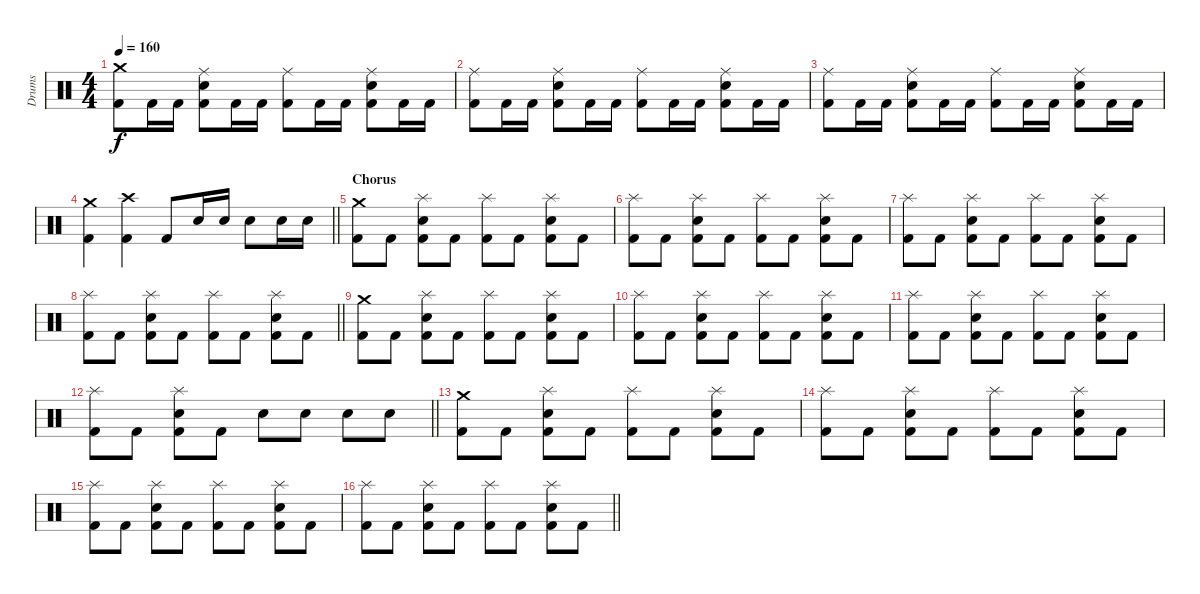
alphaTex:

\track ("Drums" "Drums") {instrument percussion}
\staff {score}
\articulation defaults
\ts (4 4)
\section ("" "")
\tempo 160
\clef neutral
\ks c
("Kick (hit) 2" "Crash medium (hit)").8{dy f} "Kick (hit) 2".16 "Kick (hit) 2".16 ("Kick (hit) 2" "Snare (hit) 2" "Ride (middle)").8 "Kick (hit) 2".16 "Kick (hit) 2".16 ("Kick (hit) 2" "Ride (middle)").8 "Kick (hit) 2".16 "Kick (hit) 2".16 ("Kick (hit) 2" "Snare (hit) 2" "Ride (middle)").8 "Kick (hit) 2".16 "Kick (hit) 2".16 |
("Kick (hit) 2" "Ride (middle)").8 "Kick (hit) 2".16 "Kick (hit) 2".16 ("Kick (hit) 2" "Snare (hit) 2" "Ride (middle)").8 "Kick (hit) 2".16 "Kick (hit) 2".16 ("Kick (hit) 2" "Ride (middle)").8 "Kick (hit) 2".16 "Kick (hit) 2".16 ("Kick (hit) 2" "Snare (hit) 2" "Ride (middle)").8 "Kick (hit) 2".16 "Kick (hit) 2".16 |
("Kick (hit) 2" "Ride (middle)").8 "Kick (hit) 2".16 "Kick (hit) 2".16 ("Kick (hit) 2" "Snare (hit) 2" "Ride (middle)").8 "Kick (hit) 2".16 "Kick (hit) 2".16 ("Kick (hit) 2" "Ride (middle)").8 "Kick (hit) 2".16 "Kick (hit) 2".16 ("Kick (hit) 2" "Snare (hit) 2" "Ride (middle)").8 "Kick (hit) 2".16 "Kick (hit) 2".16 |
\barLineRight lightlight
("Kick (hit) 2" "Crash medium (hit)").4 ("Kick (hit) 2" "Crash high (hit)").4 "Kick (hit) 2".8 "Snare (hit) 2".16 "Snare (hit) 2".16 "Snare (hit) 2".8 "Snare (hit) 2".16 "Snare (hit) 2".16 |
\section ("" "Chorus")
("Kick (hit) 2" "Crash medium (hit)").8 "Kick (hit) 2".8 ("Kick (hit) 2" "Snare (hit) 2" "Splash (hit)").8 "Kick (hit) 2".8 ("Kick (hit) 2" "Splash (hit)").8 "Kick (hit) 2".8 ("Kick (hit) 2" "Snare (hit) 2" "Splash (hit)").8 "Kick (hit) 2".8 |
("Kick (hit) 2" "Splash (hit)").8 "Kick (hit) 2".8 ("Kick (hit) 2" "Snare (hit) 2" "Splash (hit)").8 "Kick (hit) 2".8 ("Kick (hit) 2" "Splash (hit)").8 "Kick (hit) 2".8 ("Kick (hit) 2" "Snare (hit) 2" "Splash (hit)").8 "Kick (hit) 2".8 |
("Kick (hit) 2" "Splash (hit)").8 "Kick (hit) 2".8 ("Kick (hit) 2" "Snare (hit) 2" "Splash (hit)").8 "Kick (hit) 2".8 ("Kick (hit) 2" "Splash (hit)").8 "Kick (hit) 2".8 ("Kick (hit) 2" "Snare (hit) 2" "Splash (hit)").8 "Kick (hit) 2".8 |
\barLineRight lightlight
("Kick (hit) 2" "Splash (hit)").8 "Kick (hit) 2".8 ("Kick (hit) 2" "Snare (hit) 2" "Splash (hit)").8 "Kick (hit) 2".8 ("Kick (hit) 2" "Splash (hit)").8 "Kick (hit) 2".8 ("Kick (hit) 2" "Snare (hit) 2" "Splash (hit)").8 "Kick (hit) 2".8 |
\section ("" "")
("Kick (hit) 2" "Crash medium (hit)").8 "Kick (hit) 2".8 ("Kick (hit) 2" "Snare (hit) 2" "Splash (hit)").8 "Kick (hit) 2".8 ("Kick (hit) 2" "Splash (hit)").8 "Kick (hit) 2".8 ("Kick (hit) 2" "Snare (hit) 2" "Splash (hit)").8 "Kick (hit) 2".8 |
("Kick (hit) 2" "Splash (hit)").8 "Kick (hit) 2".8 ("Kick (hit) 2" "Snare (hit) 2" "Splash (hit)").8 "Kick (hit) 2".8 ("Kick (hit) 2" "Splash (hit)").8 "Kick (hit) 2".8 ("Kick (hit) 2" "Snare (hit) 2" "Splash (hit)").8 "Kick (hit) 2".8 |
("Kick (hit) 2" "Splash (hit)").8 "Kick (hit) 2".8 ("Kick (hit) 2" "Snare (hit) 2" "Splash (hit)").8 "Kick (hit) 2".8 ("Kick (hit) 2" "Splash (hit)").8 "Kick (hit) 2".8 ("Kick (hit) 2" "Snare (hit) 2" "Splash (hit)").8 "Kick (hit) 2".8 |
\barLineRight lightlight
("Kick (hit) 2" "Splash (hit)").8 "Kick (hit) 2".8 ("Kick (hit) 2" "Snare (hit) 2" "Splash (hit)").8 "Kick (hit) 2".8 "Snare (hit) 2".8 "Snare (hit) 2".8 "Snare (hit) 2".8 "Snare (hit) 2".8 |
\section ("" "")
("Kick (hit) 2" "Crash medium (hit)").8 "Kick (hit) 2".8 ("Kick (hit) 2" "Snare (hit) 2" "Splash (hit)").8 "Kick (hit) 2".8 ("Kick (hit) 2" "Splash (hit)").8 "Kick (hit) 2".8 ("Kick (hit) 2" "Snare (hit) 2" "Splash (hit)").8 "Kick (hit) 2".8 |
("Kick (hit) 2" "Splash (hit)").8 "Kick (hit) 2".8 ("Kick (hit) 2" "Snare (hit) 2" "Splash (hit)").8 "Kick (hit) 2".8 ("Kick (hit) 2" "Splash (hit)").8 "Kick (hit) 2".8 ("Kick (hit) 2" "Snare (hit) 2" "Splash (hit)").8 "Kick (hit) 2".8 |
("Kick (hit) 2" "Splash (hit)").8 "Kick (hit) 2".8 ("Kick (hit) 2" "Snare (hit) 2" "Splash (hit)").8 "Kick (hit) 2".8 ("Kick (hit) 2" "Splash (hit)").8 "Kick (hit) 2".8 ("Kick (hit) 2" "Snare (hit) 2" "Splash (hit)").8 "Kick (hit) 2".8 |
\barLineRight lightlight
("Kick (hit) 2" "Splash (hit)").8 "Kick (hit) 2".8 ("Kick (hit) 2" "Snare (hit) 2" "Splash (hit)").8 "Kick (hit) 2".8 ("Kick (hit) 2" "Splash (hit)").8 "Kick (hit) 2".8 ("Kick (hit) 2" "Snare (hit) 2" "Splash (hit)").8 "Kick (hit) 2".8
